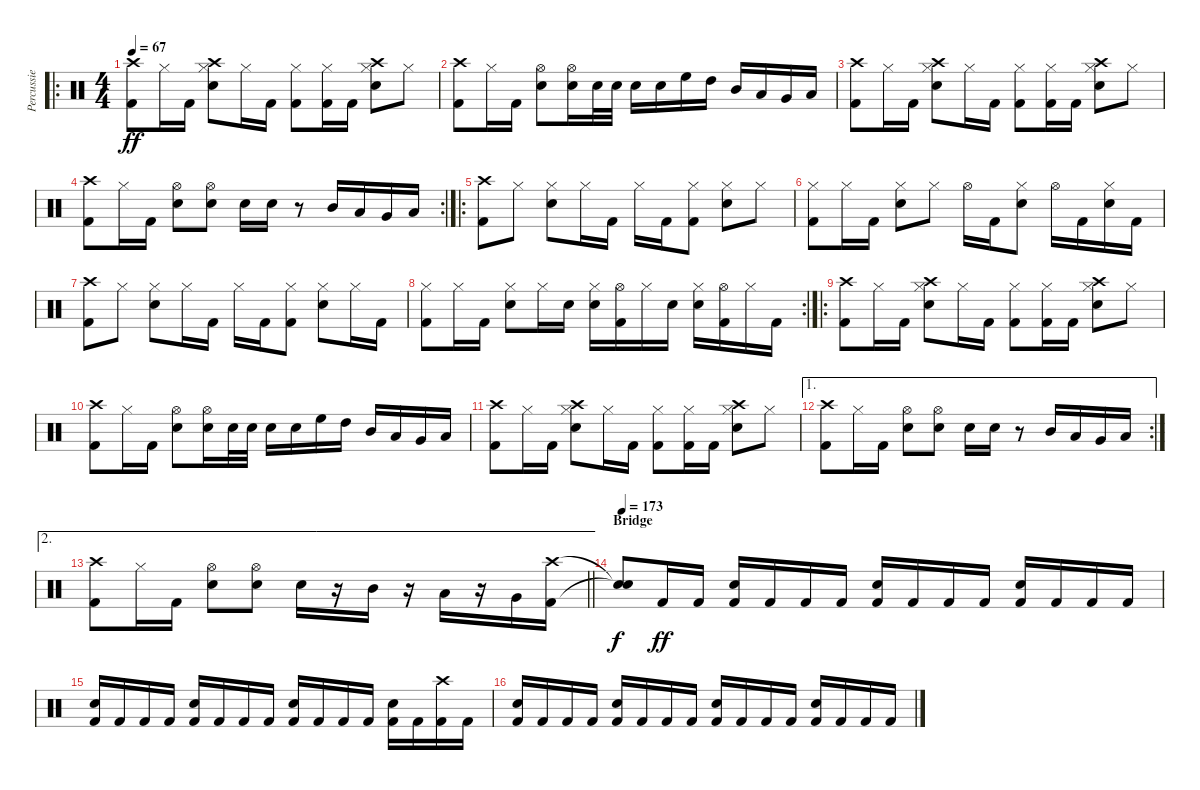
\track ("Percussie" "Percussie") {instrument percussion}
\staff {score}
\articulation defaults
\ro
\ts (4 4)
\tempo 67
\clef neutral
\ks c
("Kick (hit) 2" "Crash high (hit)").8{dy ff} "Hi-Hat (closed)".16 "Kick (hit) 2".16 ("Snare (hit) 2" "Hi-Hat (closed)" "Crash high (hit)").8 "Hi-Hat (closed)".16 "Kick (hit) 2".16 ("Kick (hit) 2" "Hi-Hat (closed)").8 ("Kick (hit) 2" "Hi-Hat (closed)").16 "Kick (hit) 2".16 ("Snare (hit) 2" "Hi-Hat (closed)" "Crash high (hit)").8 "Hi-Hat (closed)".8 |
("Kick (hit) 2" "Crash high (hit)").8 "Hi-Hat (closed)".16 "Kick (hit) 2".16 ("Snare (hit) 2" "Hi-Hat (open)").8 ("Snare (hit) 2" "Hi-Hat (open)").16 "Snare (hit) 2".32 "Snare (hit) 2".32 "Snare (hit) 2".16 "Snare (hit) 2".16 "High Floor Tom (hit)".16 "High Tom (hit)".16 "Mid Tom (hit)".16 "Low Tom (hit)".16 "Very Low Tom (hit)".16 "Low Floor Tom (hit)".16 |
("Kick (hit) 2" "Crash high (hit)").8 "Hi-Hat (closed)".16 "Kick (hit) 2".16 ("Snare (hit) 2" "Hi-Hat (closed)" "Crash high (hit)").8 "Hi-Hat (closed)".16 "Kick (hit) 2".16 ("Kick (hit) 2" "Hi-Hat (closed)").8 ("Kick (hit) 2" "Hi-Hat (closed)").16 "Kick (hit) 2".16 ("Snare (hit) 2" "Hi-Hat (closed)" "Crash high (hit)").8 "Hi-Hat (closed)".8 |
\rc 2
("Kick (hit) 2" "Crash high (hit)").8 "Hi-Hat (closed)".16 "Kick (hit) 2".16 ("Snare (hit) 2" "Hi-Hat (open)").8 ("Snare (hit) 2" "Hi-Hat (open)").8 "Snare (hit) 2".16 "Snare (hit) 2".16 r.8 "Mid Tom (hit)".16 "Low Tom (hit)".16 "Very Low Tom (hit)".16 "Low Floor Tom (hit)".16 |
\ro
("Kick (hit) 2" "Crash high (hit)").8 "Hi-Hat (closed)".8 ("Snare (hit) 2" "Hi-Hat (closed)").8 "Hi-Hat (closed)".16 "Kick (hit) 2".16 "Hi-Hat (closed)".16 "Kick (hit) 2".16 ("Kick (hit) 2" "Hi-Hat (closed)").8 ("Snare (hit) 2" "Hi-Hat (closed)").8 "Hi-Hat (closed)".8 |
("Kick (hit) 2" "Hi-Hat (closed)").8 "Hi-Hat (closed)".16 "Kick (hit) 2".16 ("Snare (hit) 2" "Hi-Hat (closed)").8 "Hi-Hat (closed)".8 "Hi-Hat (open)".16 "Kick (hit) 2".16 ("Snare (hit) 2" "Hi-Hat (closed)").8 "Hi-Hat (open)".16 "Kick (hit) 2".16 ("Snare (hit) 2" "Hi-Hat (closed)").16 "Kick (hit) 2".16 |
("Kick (hit) 2" "Crash high (hit)").8 "Hi-Hat (closed)".8 ("Snare (hit) 2" "Hi-Hat (closed)").8 "Hi-Hat (closed)".16 "Kick (hit) 2".16 "Hi-Hat (closed)".16 "Kick (hit) 2".16 ("Kick (hit) 2" "Hi-Hat (closed)").8 ("Snare (hit) 2" "Hi-Hat (closed)").8 "Hi-Hat (closed)".16 "Kick (hit) 2".16 |
\rc 2
("Kick (hit) 2" "Hi-Hat (closed)").8 "Hi-Hat (closed)".16 "Kick (hit) 2".16 ("Snare (hit) 2" "Hi-Hat (closed)").8 "Hi-Hat (closed)".16 "Snare (hit) 2".16 ("Snare (hit) 2" "Hi-Hat (closed)").16 ("Kick (hit) 2" "Hi-Hat (open)").16 "Hi-Hat (closed)".16 "Snare (hit) 2".16 ("Snare (hit) 2" "Hi-Hat (closed)").16 ("Kick (hit) 2" "Hi-Hat (open)").16 "Hi-Hat (closed)".16 "Kick (hit) 2".16 |
\ro
("Kick (hit) 2" "Crash high (hit)").8 "Hi-Hat (closed)".16 "Kick (hit) 2".16 ("Snare (hit) 2" "Hi-Hat (closed)" "Crash high (hit)").8 "Hi-Hat (closed)".16 "Kick (hit) 2".16 ("Kick (hit) 2" "Hi-Hat (closed)").8 ("Kick (hit) 2" "Hi-Hat (closed)").16 "Kick (hit) 2".16 ("Snare (hit) 2" "Hi-Hat (closed)" "Crash high (hit)").8 "Hi-Hat (closed)".8 |
("Kick (hit) 2" "Crash high (hit)").8 "Hi-Hat (closed)".16 "Kick (hit) 2".16 ("Snare (hit) 2" "Hi-Hat (open)").8 ("Snare (hit) 2" "Hi-Hat (open)").16 "Snare (hit) 2".32 "Snare (hit) 2".32 "Snare (hit) 2".16 "Snare (hit) 2".16 "High Floor Tom (hit)".16 "High Tom (hit)".16 "Mid Tom (hit)".16 "Low Tom (hit)".16 "Very Low Tom (hit)".16 "Low Floor Tom (hit)".16 |
("Kick (hit) 2" "Crash high (hit)").8 "Hi-Hat (closed)".16 "Kick (hit) 2".16 ("Snare (hit) 2" "Hi-Hat (closed)" "Crash high (hit)").8 "Hi-Hat (closed)".16 "Kick (hit) 2".16 ("Kick (hit) 2" "Hi-Hat (closed)").8 ("Kick (hit) 2" "Hi-Hat (closed)").16 "Kick (hit) 2".16 ("Snare (hit) 2" "Hi-Hat (closed)" "Crash high (hit)").8 "Hi-Hat (closed)".8 |
\ae 1
\rc 2
("Kick (hit) 2" "Crash high (hit)").8 "Hi-Hat (closed)".16 "Kick (hit) 2".16 ("Snare (hit) 2" "Hi-Hat (open)").8 ("Snare (hit) 2" "Hi-Hat (open)").8 "Snare (hit) 2".16 "Snare (hit) 2".16 r.8 "Mid Tom (hit)".16 "Low Tom (hit)".16 "Very Low Tom (hit)".16 "Low Floor Tom (hit)".16 |
\ae 2
\barLineRight lightlight
("Kick (hit) 2" "Crash high (hit)").8 "Hi-Hat (closed)".16 "Kick (hit) 2".16 ("Snare (hit) 2" "Hi-Hat (open)").8 ("Snare (hit) 2" "Hi-Hat (open)").8 "Snare (hit) 2".16 r.16 "Mid Tom (hit)".16 r.16 "Low Tom (hit)".16 r.16 "Very Low Tom (hit)".16 ("Kick (hit) 2" "Crash high (hit)").16 |
\section ("" "Bridge")
\tempo 173
("Snare (hit)"{t} "Snare (hit)"{t}).8{dy f} "Kick (hit) 2".16{dy ff} "Kick (hit) 2".16 ("Kick (hit) 2" "Snare (hit) 2").16 "Kick (hit) 2".16 "Kick (hit) 2".16 "Kick (hit) 2".16 ("Kick (hit) 2" "Snare (hit) 2").16 "Kick (hit) 2".16 "Kick (hit) 2".16 "Kick (hit) 2".16 ("Kick (hit) 2" "Snare (hit) 2").16 "Kick (hit) 2".16 "Kick (hit) 2".16 "Kick (hit) 2".16 |
("Kick (hit) 2" "Snare (hit) 2").16 "Kick (hit) 2".16 "Kick (hit) 2".16 "Kick (hit) 2".16 ("Kick (hit) 2" "Snare (hit) 2").16 "Kick (hit) 2".16 "Kick (hit) 2".16 "Kick (hit) 2".16 ("Kick (hit) 2" "Snare (hit) 2").16 "Kick (hit) 2".16 "Kick (hit) 2".16 "Kick (hit) 2".16 ("Kick (hit) 2" "Snare (hit) 2").16 "Kick (hit) 2".16 ("Kick (hit) 2" "Crash high (hit)").16 "Kick (hit) 2".16 |
("Kick (hit) 2" "Snare (hit) 2").16 "Kick (hit) 2".16 "Kick (hit) 2".16 "Kick (hit) 2".16 ("Kick (hit) 2" "Snare (hit) 2").16 "Kick (hit) 2".16 "Kick (hit) 2".16 "Kick (hit) 2".16 ("Kick (hit) 2" "Snare (hit) 2").16 "Kick (hit) 2".16 "Kick (hit) 2".16 "Kick (hit) 2".16 ("Kick (hit) 2" "Snare (hit) 2").16 "Kick (hit) 2".16 "Kick (hit) 2".16 "Kick (hit) 2".16
